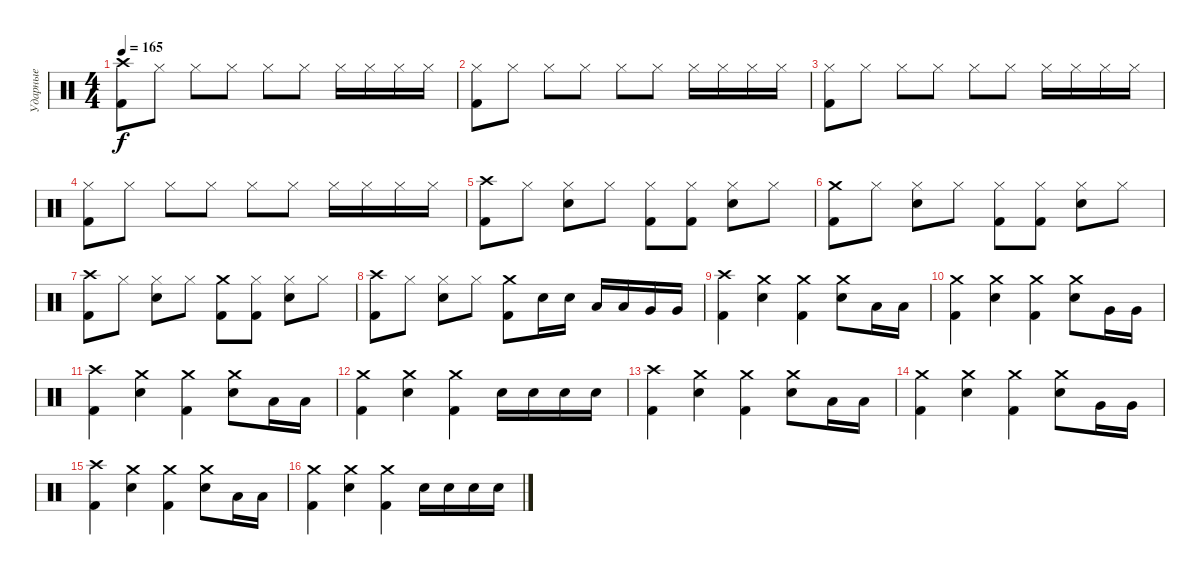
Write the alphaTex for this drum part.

\track ("Ударные" "Ударные") {instrument percussion}
\staff {score}
\articulation defaults
\ts (4 4)
\tempo 165
\clef neutral
\ks c
("Kick (hit) 2" "Crash high (hit)").8{dy f} "Hi-Hat (closed)".8 "Hi-Hat (closed)".8 "Hi-Hat (closed)".8 "Hi-Hat (closed)".8 "Hi-Hat (closed)".8 "Hi-Hat (closed)".16 "Hi-Hat (closed)".16 "Hi-Hat (closed)".16 "Hi-Hat (closed)".16 |
("Kick (hit) 2" "Hi-Hat (closed)").8 "Hi-Hat (closed)".8 "Hi-Hat (closed)".8 "Hi-Hat (closed)".8 "Hi-Hat (closed)".8 "Hi-Hat (closed)".8 "Hi-Hat (closed)".16 "Hi-Hat (closed)".16 "Hi-Hat (closed)".16 "Hi-Hat (closed)".16 |
("Kick (hit) 2" "Hi-Hat (closed)").8 "Hi-Hat (closed)".8 "Hi-Hat (closed)".8 "Hi-Hat (closed)".8 "Hi-Hat (closed)".8 "Hi-Hat (closed)".8 "Hi-Hat (closed)".16 "Hi-Hat (closed)".16 "Hi-Hat (closed)".16 "Hi-Hat (closed)".16 |
("Kick (hit) 2" "Hi-Hat (closed)").8 "Hi-Hat (closed)".8 "Hi-Hat (closed)".8 "Hi-Hat (closed)".8 "Hi-Hat (closed)".8 "Hi-Hat (closed)".8 "Hi-Hat (closed)".16 "Hi-Hat (closed)".16 "Hi-Hat (closed)".16 "Hi-Hat (closed)".16 |
("Crash high (hit)" "Kick (hit) 2").8 "Hi-Hat (closed)".8 ("Hi-Hat (closed)" "Snare (hit) 2").8 "Hi-Hat (closed)".8 ("Hi-Hat (closed)" "Kick (hit) 2").8 ("Hi-Hat (closed)" "Kick (hit) 2").8 ("Hi-Hat (closed)" "Snare (hit) 2").8 "Hi-Hat (closed)".8 |
("Crash medium (hit)" "Kick (hit) 2").8 "Hi-Hat (closed)".8 ("Hi-Hat (closed)" "Snare (hit) 2").8 "Hi-Hat (closed)".8 ("Hi-Hat (closed)" "Kick (hit) 2").8 ("Hi-Hat (closed)" "Kick (hit) 2").8 ("Hi-Hat (closed)" "Snare (hit) 2").8 "Hi-Hat (closed)".8 |
("Crash high (hit)" "Kick (hit) 2").8 "Hi-Hat (closed)".8 ("Hi-Hat (closed)" "Snare (hit) 2").8 "Hi-Hat (closed)".8 ("Crash medium (hit)" "Kick (hit) 2").8 ("Hi-Hat (closed)" "Kick (hit) 2").8 ("Hi-Hat (closed)" "Snare (hit) 2").8 "Hi-Hat (closed)".8 |
("Crash high (hit)" "Kick (hit) 2").8 "Hi-Hat (closed)".8 ("Hi-Hat (closed)" "Snare (hit) 2").8 "Hi-Hat (closed)".8 ("Crash medium (hit)" "Kick (hit) 2").8 "Snare (hit) 2".16 "Snare (hit) 2".16 "Low Tom (hit)".16 "Low Tom (hit)".16 "Very Low Tom (hit)".16 "Very Low Tom (hit)".16 |
("Crash high (hit)" "Kick (hit) 2").4 ("Crash medium (hit)" "Snare (hit) 2").4 ("Kick (hit) 2" "Crash medium (hit)").4 ("Snare (hit) 2" "Crash medium (hit)").8 "Low Tom (hit)".16 "Low Tom (hit)".16 |
("Crash medium (hit)" "Kick (hit) 2").4 ("Crash medium (hit)" "Snare (hit) 2").4 ("Kick (hit) 2" "Crash medium (hit)").4 ("Snare (hit) 2" "Crash medium (hit)").8 "Very Low Tom (hit)".16 "Very Low Tom (hit)".16 |
("Crash high (hit)" "Kick (hit) 2").4 ("Crash medium (hit)" "Snare (hit) 2").4 ("Kick (hit) 2" "Crash medium (hit)").4 ("Snare (hit) 2" "Crash medium (hit)").8 "Low Tom (hit)".16 "Low Tom (hit)".16 |
("Crash medium (hit)" "Kick (hit) 2").4 ("Crash medium (hit)" "Snare (hit) 2").4 ("Kick (hit) 2" "Crash medium (hit)").4 "Snare (hit) 2".16 "Snare (hit) 2".16 "Snare (hit) 2".16 "Snare (hit) 2".16 |
("Crash high (hit)" "Kick (hit) 2").4 ("Crash medium (hit)" "Snare (hit) 2").4 ("Kick (hit) 2" "Crash medium (hit)").4 ("Snare (hit) 2" "Crash medium (hit)").8 "Low Tom (hit)".16 "Low Tom (hit)".16 |
("Crash medium (hit)" "Kick (hit) 2").4 ("Crash medium (hit)" "Snare (hit) 2").4 ("Kick (hit) 2" "Crash medium (hit)").4 ("Snare (hit) 2" "Crash medium (hit)").8 "Very Low Tom (hit)".16 "Very Low Tom (hit)".16 |
("Crash high (hit)" "Kick (hit) 2").4 ("Crash medium (hit)" "Snare (hit) 2").4 ("Kick (hit) 2" "Crash medium (hit)").4 ("Snare (hit) 2" "Crash medium (hit)").8 "Low Tom (hit)".16 "Low Tom (hit)".16 |
("Crash medium (hit)" "Kick (hit) 2").4 ("Crash medium (hit)" "Snare (hit) 2").4 ("Kick (hit) 2" "Crash medium (hit)").4 "Snare (hit) 2".16 "Snare (hit) 2".16 "Snare (hit) 2".16 "Snare (hit) 2".16
